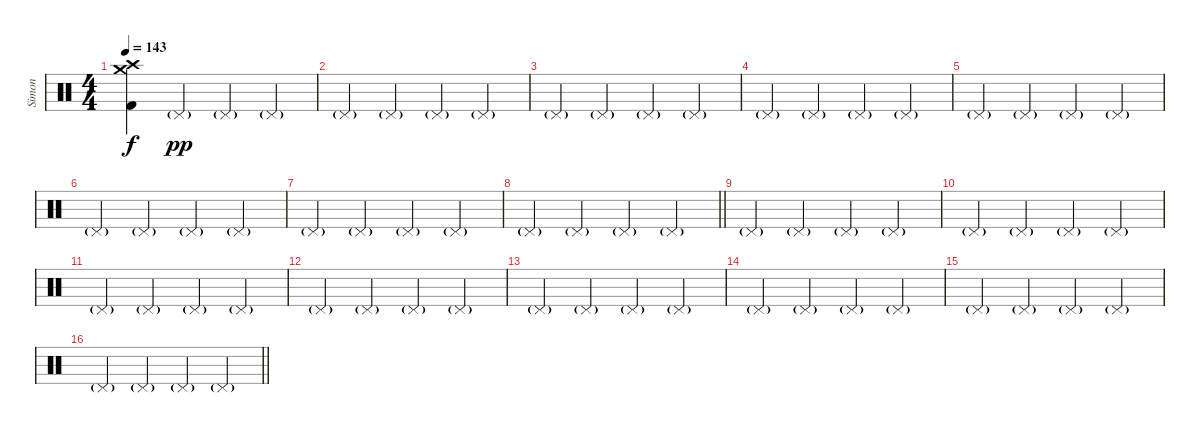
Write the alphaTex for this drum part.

\track ("Simon" "Simon") {instrument percussion}
\staff {score}
\articulation defaults
\ts (4 4)
\section ("" "")
\tempo 143
\clef neutral
\ks c
("Crash high (hit)" "Crash medium (hit)" "Kick (hit) 2").4{dy f} "Pedal Hi-Hat (hit)"{g}.4{dy pp} "Pedal Hi-Hat (hit)"{g}.4 "Pedal Hi-Hat (hit)"{g}.4 |
"Pedal Hi-Hat (hit)"{g}.4 "Pedal Hi-Hat (hit)"{g}.4 "Pedal Hi-Hat (hit)"{g}.4 "Pedal Hi-Hat (hit)"{g}.4 |
"Pedal Hi-Hat (hit)"{g}.4 "Pedal Hi-Hat (hit)"{g}.4 "Pedal Hi-Hat (hit)"{g}.4 "Pedal Hi-Hat (hit)"{g}.4 |
"Pedal Hi-Hat (hit)"{g}.4 "Pedal Hi-Hat (hit)"{g}.4 "Pedal Hi-Hat (hit)"{g}.4 "Pedal Hi-Hat (hit)"{g}.4 |
"Pedal Hi-Hat (hit)"{g}.4 "Pedal Hi-Hat (hit)"{g}.4 "Pedal Hi-Hat (hit)"{g}.4 "Pedal Hi-Hat (hit)"{g}.4 |
"Pedal Hi-Hat (hit)"{g}.4 "Pedal Hi-Hat (hit)"{g}.4 "Pedal Hi-Hat (hit)"{g}.4 "Pedal Hi-Hat (hit)"{g}.4 |
"Pedal Hi-Hat (hit)"{g}.4 "Pedal Hi-Hat (hit)"{g}.4 "Pedal Hi-Hat (hit)"{g}.4 "Pedal Hi-Hat (hit)"{g}.4 |
\barLineRight lightlight "Pedal Hi-Hat (hit)"{g}.4 "Pedal Hi-Hat (hit)"{g}.4 "Pedal Hi-Hat (hit)"{g}.4 "Pedal Hi-Hat (hit)"{g}.4
|
"Pedal Hi-Hat (hit)"{g}.4 "Pedal Hi-Hat (hit)"{g}.4 "Pedal Hi-Hat (hit)"{g}.4 "Pedal Hi-Hat (hit)"{g}.4 |
"Pedal Hi-Hat (hit)"{g}.4 "Pedal Hi-Hat (hit)"{g}.4 "Pedal Hi-Hat (hit)"{g}.4 "Pedal Hi-Hat (hit)"{g}.4 |
"Pedal Hi-Hat (hit)"{g}.4 "Pedal Hi-Hat (hit)"{g}.4 "Pedal Hi-Hat (hit)"{g}.4 "Pedal Hi-Hat (hit)"{g}.4 |
"Pedal Hi-Hat (hit)"{g}.4 "Pedal Hi-Hat (hit)"{g}.4 "Pedal Hi-Hat (hit)"{g}.4 "Pedal Hi-Hat (hit)"{g}.4 |
"Pedal Hi-Hat (hit)"{g}.4 "Pedal Hi-Hat (hit)"{g}.4 "Pedal Hi-Hat (hit)"{g}.4 "Pedal Hi-Hat (hit)"{g}.4 |
"Pedal Hi-Hat (hit)"{g}.4 "Pedal Hi-Hat (hit)"{g}.4 "Pedal Hi-Hat (hit)"{g}.4 "Pedal Hi-Hat (hit)"{g}.4 |
"Pedal Hi-Hat (hit)"{g}.4 "Pedal Hi-Hat (hit)"{g}.4 "Pedal Hi-Hat (hit)"{g}.4 "Pedal Hi-Hat (hit)"{g}.4 |
\barLineRight lightlight "Pedal Hi-Hat (hit)"{g}.4 "Pedal Hi-Hat (hit)"{g}.4 "Pedal Hi-Hat (hit)"{g}.4 "Pedal Hi-Hat (hit)"{g}.4
